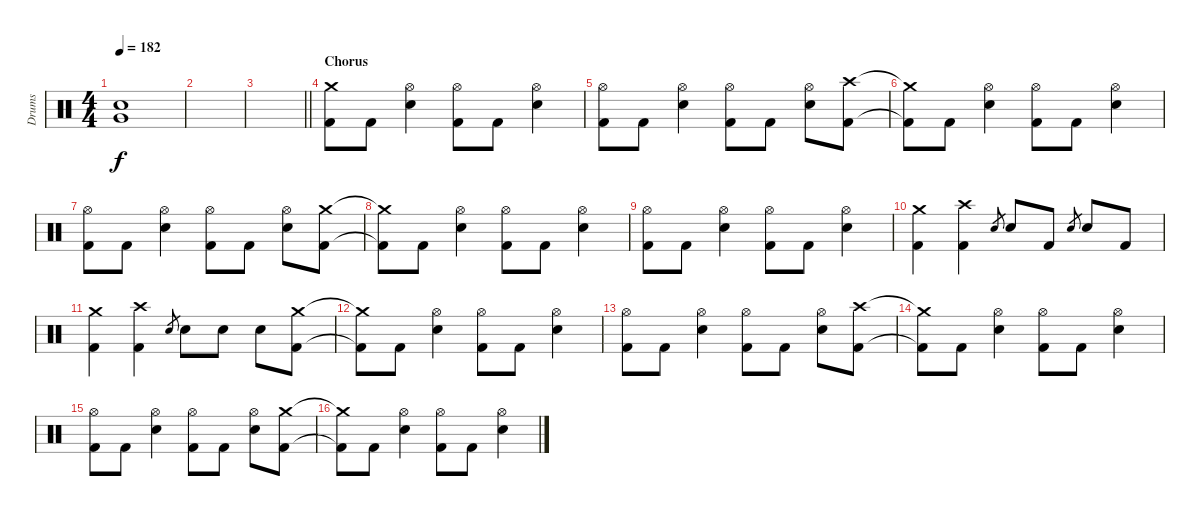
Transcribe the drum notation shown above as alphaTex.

\track ("Drums" "Drums") {instrument percussion}
\staff {score}
\articulation defaults
\ts (4 4)
\tempo 182
\clef neutral
\ks c
("Very Low Tom (hit)" "Electric Snare (hit)").1{dy f} |
|
\barLineRight lightlight
|
\section ("" "Chorus")
("Crash medium (hit)" "Kick (hit) 2").8 "Kick (hit) 2".8 ("Hi-Hat (open)" "Electric Snare (hit)").4 ("Hi-Hat (open)" "Kick (hit) 2").8 "Kick (hit) 2".8 ("Hi-Hat (open)" "Electric Snare (hit)").4 |
("Hi-Hat (open)" "Kick (hit) 2").8 "Kick (hit) 2".8 ("Hi-Hat (open)" "Electric Snare (hit)").4 ("Hi-Hat (open)" "Kick (hit) 2").8 "Kick (hit) 2".8 ("Hi-Hat (open)" "Electric Snare (hit)").8 ("Crash high (hit)" "Kick (hit) 2").8 |
("Crash medium (hit)"{t} "Kick (hit) 2"{t}).8 "Kick (hit) 2".8 ("Hi-Hat (open)" "Electric Snare (hit)").4 ("Hi-Hat (open)" "Kick (hit) 2").8 "Kick (hit) 2".8 ("Hi-Hat (open)" "Electric Snare (hit)").4 |
("Hi-Hat (open)" "Kick (hit) 2").8 "Kick (hit) 2".8 ("Hi-Hat (open)" "Electric Snare (hit)").4 ("Hi-Hat (open)" "Kick (hit) 2").8 "Kick (hit) 2".8 ("Hi-Hat (open)" "Electric Snare (hit)").8 ("Crash medium (hit)" "Kick (hit) 2").8 |
("Crash medium (hit)"{t} "Kick (hit) 2"{t}).8 "Kick (hit) 2".8 ("Hi-Hat (open)" "Electric Snare (hit)").4 ("Hi-Hat (open)" "Kick (hit) 2").8 "Kick (hit) 2".8 ("Hi-Hat (open)" "Electric Snare (hit)").4 |
("Hi-Hat (open)" "Kick (hit) 2").8 "Kick (hit) 2".8 ("Hi-Hat (open)" "Electric Snare (hit)").4 ("Hi-Hat (open)" "Kick (hit) 2").8 "Kick (hit) 2".8 ("Hi-Hat (open)" "Electric Snare (hit)").4 |
("Crash medium (hit)" "Kick (hit) 2").4 ("Crash high (hit)" "Kick (hit) 2").4 "Electric Snare (hit)".8{gr} "Electric Snare (hit)".8 "Kick (hit) 2".8 "Electric Snare (hit)".8{gr} "Electric Snare (hit)".8 "Kick (hit) 2".8 |
("Crash medium (hit)" "Kick (hit) 2").4 ("Crash high (hit)" "Kick (hit) 2").4 "Electric Snare (hit)".8{gr} "Electric Snare (hit)".8 "Electric Snare (hit)".8 "Electric Snare (hit)".8 ("Crash medium (hit)" "Kick (hit) 2").8 |
("Crash medium (hit)"{t} "Kick (hit) 2"{t}).8 "Kick (hit) 2".8 ("Hi-Hat (open)" "Electric Snare (hit)").4 ("Hi-Hat (open)" "Kick (hit) 2").8 "Kick (hit) 2".8 ("Hi-Hat (open)" "Electric Snare (hit)").4 |
("Hi-Hat (open)" "Kick (hit) 2").8 "Kick (hit) 2".8 ("Hi-Hat (open)" "Electric Snare (hit)").4 ("Hi-Hat (open)" "Kick (hit) 2").8 "Kick (hit) 2".8 ("Hi-Hat (open)" "Electric Snare (hit)").8 ("Crash high (hit)" "Kick (hit) 2").8 |
("Crash medium (hit)"{t} "Kick (hit) 2"{t}).8 "Kick (hit) 2".8 ("Hi-Hat (open)" "Electric Snare (hit)").4 ("Hi-Hat (open)" "Kick (hit) 2").8 "Kick (hit) 2".8 ("Hi-Hat (open)" "Electric Snare (hit)").4 |
("Hi-Hat (open)" "Kick (hit) 2").8 "Kick (hit) 2".8 ("Hi-Hat (open)" "Electric Snare (hit)").4 ("Hi-Hat (open)" "Kick (hit) 2").8 "Kick (hit) 2".8 ("Hi-Hat (open)" "Electric Snare (hit)").8 ("Crash medium (hit)" "Kick (hit) 2").8 |
("Crash medium (hit)"{t} "Kick (hit) 2"{t}).8 "Kick (hit) 2".8 ("Hi-Hat (open)" "Electric Snare (hit)").4 ("Hi-Hat (open)" "Kick (hit) 2").8 "Kick (hit) 2".8 ("Hi-Hat (open)" "Electric Snare (hit)").4
